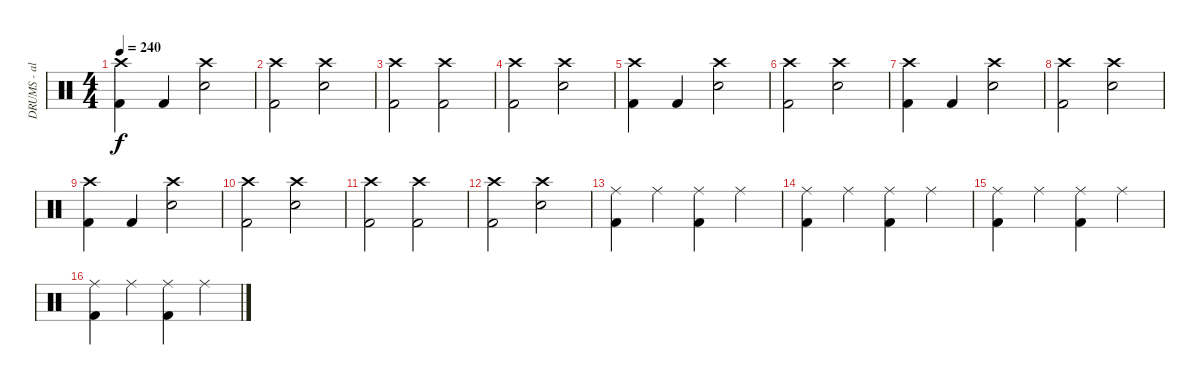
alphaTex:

\track ("DRUMS - alastor" "DRUMS - al") {instrument percussion}
\staff {score}
\articulation defaults
\ts (4 4)
\tempo 240
\clef neutral
\ks c
("Crash high (hit)" "Kick (hit) 2").4{dy f} "Kick (hit) 2".4 ("Crash high (hit)" "Snare (hit) 2").2 |
("Crash high (hit)" "Kick (hit) 2").2 ("Crash high (hit)" "Snare (hit) 2").2 |
("Crash high (hit)" "Kick (hit) 2").2 ("Crash high (hit)" "Kick (hit) 2").2 |
("Crash high (hit)" "Kick (hit) 2").2 ("Crash high (hit)" "Snare (hit) 2").2 |
("Crash high (hit)" "Kick (hit) 2").4 "Kick (hit) 2".4 ("Crash high (hit)" "Snare (hit) 2").2 |
("Crash high (hit)" "Kick (hit) 2").2 ("Crash high (hit)" "Snare (hit) 2").2 |
("Crash high (hit)" "Kick (hit) 2").4 "Kick (hit) 2".4 ("Crash high (hit)" "Snare (hit) 2").2 |
("Crash high (hit)" "Kick (hit) 2").2 ("Crash high (hit)" "Snare (hit) 2").2 |
("Crash high (hit)" "Kick (hit) 2").4 "Kick (hit) 2".4 ("Crash high (hit)" "Snare (hit) 2").2 |
("Crash high (hit)" "Kick (hit) 2").2 ("Crash high (hit)" "Snare (hit) 2").2 |
("Crash high (hit)" "Kick (hit) 2").2 ("Crash high (hit)" "Kick (hit) 2").2 |
("Crash high (hit)" "Kick (hit) 2").2 ("Crash high (hit)" "Snare (hit) 2").2 |
("Ride (middle)" "Kick (hit) 2").4 "Ride (middle)".4 ("Ride (middle)" "Kick (hit) 2").4 "Ride (middle)".4 |
("Ride (middle)" "Kick (hit) 2").4 "Ride (middle)".4 ("Ride (middle)" "Kick (hit) 2").4 "Ride (middle)".4 |
("Ride (middle)" "Kick (hit) 2").4 "Ride (middle)".4 ("Ride (middle)" "Kick (hit) 2").4 "Ride (middle)".4 |
("Ride (middle)" "Kick (hit) 2").4 "Ride (middle)".4 ("Ride (middle)" "Kick (hit) 2").4 "Ride (middle)".4
